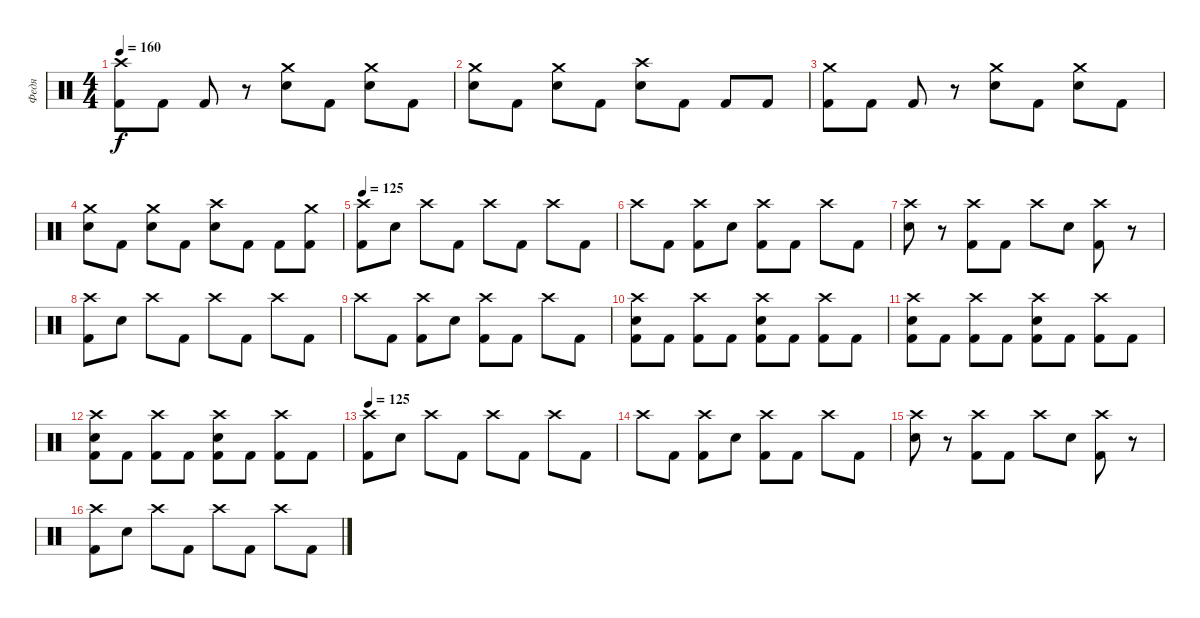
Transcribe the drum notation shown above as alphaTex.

\track ("Федя" "Федя") {instrument percussion}
\staff {score}
\articulation defaults
\ts (4 4)
\tempo 160
\clef neutral
\ks c
("Crash high (hit)" "Kick (hit) 2").8{dy f} "Kick (hit) 2".8 "Kick (hit) 2".8 r.8 ("Crash medium (hit)" "Electric Snare (hit)").8 "Kick (hit) 2".8 ("Crash medium (hit)" "Electric Snare (hit)").8 "Kick (hit) 2".8 |
("Crash medium (hit)" "Electric Snare (hit)").8 "Kick (hit) 2".8 ("Crash medium (hit)" "Electric Snare (hit)").8 "Kick (hit) 2".8 ("Crash high (hit)" "Electric Snare (hit)").8 "Kick (hit) 2".8 "Kick (hit) 2".8 "Kick (hit) 2".8 |
("Crash medium (hit)" "Kick (hit) 2").8 "Kick (hit) 2".8 "Kick (hit) 2".8 r.8 ("Crash medium (hit)" "Electric Snare (hit)").8 "Kick (hit) 2".8 ("Crash medium (hit)" "Electric Snare (hit)").8 "Kick (hit) 2".8 |
("Crash medium (hit)" "Electric Snare (hit)").8 "Kick (hit) 2".8 ("Crash medium (hit)" "Electric Snare (hit)").8 "Kick (hit) 2".8 ("Crash high (hit)" "Electric Snare (hit)").8 "Kick (hit) 2".8 "Kick (hit) 2".8 ("Crash medium (hit)" "Kick (hit) 2").8 |
\tempo 125
("Crash high (hit)" "Kick (hit) 2").8 "Electric Snare (hit)".8 "Crash high (hit)".8 "Kick (hit) 2".8 "Crash high (hit)".8 "Kick (hit) 2".8 "Crash high (hit)".8 "Kick (hit) 2".8 |
"Crash high (hit)".8 "Kick (hit) 2".8 ("Crash high (hit)" "Kick (hit) 2").8 "Electric Snare (hit)".8 ("Crash high (hit)" "Kick (hit) 2").8 "Kick (hit) 2".8 "Crash high (hit)".8 "Kick (hit) 2".8 |
("Crash high (hit)" "Electric Snare (hit)").8 r.8 ("Crash high (hit)" "Kick (hit) 2").8 "Kick (hit) 2".8 "Crash high (hit)".8 "Electric Snare (hit)".8 ("Crash high (hit)" "Kick (hit) 2").8 r.8 |
("Crash high (hit)" "Kick (hit) 2").8 "Electric Snare (hit)".8 "Crash high (hit)".8 "Kick (hit) 2".8 "Crash high (hit)".8 "Kick (hit) 2".8 "Crash high (hit)".8 "Kick (hit) 2".8 |
"Crash high (hit)".8 "Kick (hit) 2".8 ("Crash high (hit)" "Kick (hit) 2").8 "Electric Snare (hit)".8 ("Crash high (hit)" "Kick (hit) 2").8 "Kick (hit) 2".8 "Crash high (hit)".8 "Kick (hit) 2".8 |
("Crash high (hit)" "Electric Snare (hit)" "Kick (hit) 2").8 "Kick (hit) 2".8 ("Crash high (hit)" "Kick (hit) 2").8 "Kick (hit) 2".8 ("Crash high (hit)" "Electric Snare (hit)" "Kick (hit) 2").8 "Kick (hit) 2".8 ("Crash high (hit)" "Kick (hit) 2").8 "Kick (hit) 2".8 |
("Crash high (hit)" "Electric Snare (hit)" "Kick (hit) 2").8 "Kick (hit) 2".8 ("Crash high (hit)" "Kick (hit) 2").8 "Kick (hit) 2".8 ("Crash high (hit)" "Electric Snare (hit)" "Kick (hit) 2").8 "Kick (hit) 2".8 ("Crash high (hit)" "Kick (hit) 2").8 "Kick (hit) 2".8 |
("Crash high (hit)" "Electric Snare (hit)" "Kick (hit) 2").8 "Kick (hit) 2".8 ("Crash high (hit)" "Kick (hit) 2").8 "Kick (hit) 2".8 ("Crash high (hit)" "Electric Snare (hit)" "Kick (hit) 2").8 "Kick (hit) 2".8 ("Crash high (hit)" "Kick (hit) 2").8 "Kick (hit) 2".8 |
\tempo 125
("Crash high (hit)" "Kick (hit) 2").8 "Electric Snare (hit)".8 "Crash high (hit)".8 "Kick (hit) 2".8 "Crash high (hit)".8 "Kick (hit) 2".8 "Crash high (hit)".8 "Kick (hit) 2".8 |
"Crash high (hit)".8 "Kick (hit) 2".8 ("Crash high (hit)" "Kick (hit) 2").8 "Electric Snare (hit)".8 ("Crash high (hit)" "Kick (hit) 2").8 "Kick (hit) 2".8 "Crash high (hit)".8 "Kick (hit) 2".8 |
("Crash high (hit)" "Electric Snare (hit)").8 r.8 ("Crash high (hit)" "Kick (hit) 2").8 "Kick (hit) 2".8 "Crash high (hit)".8 "Electric Snare (hit)".8 ("Crash high (hit)" "Kick (hit) 2").8 r.8 |
("Crash high (hit)" "Kick (hit) 2").8 "Electric Snare (hit)".8 "Crash high (hit)".8 "Kick (hit) 2".8 "Crash high (hit)".8 "Kick (hit) 2".8 "Crash high (hit)".8 "Kick (hit) 2".8
